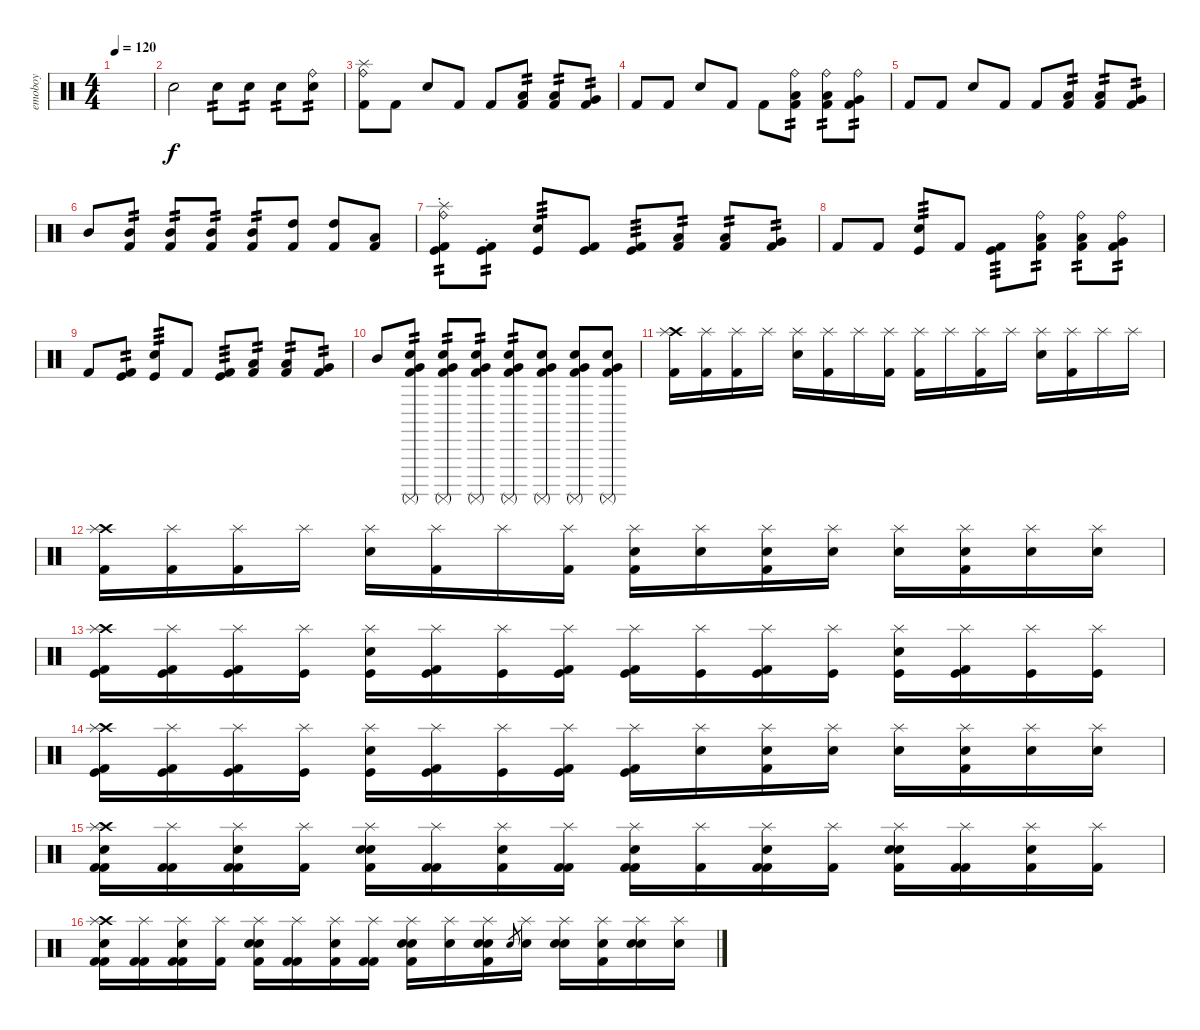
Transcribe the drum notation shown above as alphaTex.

\track ("emoboy" "emoboy") {instrument percussion}
\staff {score}
\articulation defaults
\ts (4 4)
\tempo 120
\clef neutral
\ks c
|
"Snare (hit)".2{dy f} "Electric Snare (hit)".8{tp 2 volume 4} "Electric Snare (hit)".8{tp 2 volume 8} "Electric Snare (hit)".8{tp 2 volume 12} ("Ride (bell)" "Electric Snare (hit)").8{tp 2 volume 16} |
("Ride (bell)" "Splash (hit)" "Kick (hit) 2").8 "Kick (hit) 2".8 "Electric Snare (hit)".8 "Kick (hit) 2".8 "Kick (hit) 2".8 ("Low Tom (hit)" "Kick (hit) 2").8{tp 2} ("Low Tom (hit)" "Kick (hit) 2").8{tp 2} ("Very Low Tom (hit)" "Kick (hit) 2").8{tp 2} |
"Kick (hit) 2".8 "Kick (hit) 2".8 "Electric Snare (hit)".8 "Kick (hit) 2".8 "Kick (hit) 2".8 ("Ride (bell)" "Low Tom (hit)" "Kick (hit) 2").8{tp 2} ("Ride (bell)" "Low Tom (hit)" "Kick (hit) 2").8{tp 2} ("Ride (bell)" "Very Low Tom (hit)" "Kick (hit) 2").8{tp 2} |
"Kick (hit) 2".8 "Kick (hit) 2".8 "Electric Snare (hit)".8 "Kick (hit) 2".8 "Kick (hit) 2".8 ("Low Tom (hit)" "Kick (hit) 2").8{tp 2} ("Low Tom (hit)" "Kick (hit) 2").8{tp 2} ("Very Low Tom (hit)" "Kick (hit) 2").8{tp 2} |
"Mid Tom (hit)".8 ("Mid Tom (hit)" "Kick (hit) 2").8{tp 2 volume 4} ("Mid Tom (hit)" "Kick (hit) 2").8{tp 2 volume 8} ("Mid Tom (hit)" "Kick (hit) 2").8{tp 2 volume 12} ("Mid Tom (hit)" "Kick (hit) 2").8{tp 2 volume 16} ("High Tom (hit)" "Kick (hit) 2").8 ("High Tom (hit)" "Kick (hit) 2").8 ("Low Tom (hit)" "Kick (hit) 2").8 |
("Ride (bell)" "Splash (hit)" "Kick (hit) 2"{st} "Kick (hit)").8{tp 2} ("Kick (hit) 2"{st} "Kick (hit)").8{tp 2} ("Electric Snare (hit)" "Kick (hit)").8{tp 3} ("Kick (hit) 2" "Kick (hit)").8 ("Kick (hit) 2" "Kick (hit)").8{tp 3} ("Low Tom (hit)" "Kick (hit) 2").8{tp 2} ("Low Tom (hit)" "Kick (hit) 2").8{tp 2} ("Very Low Tom (hit)" "Kick (hit) 2").8{tp 2} |
"Kick (hit) 2".8 "Kick (hit) 2".8 ("Electric Snare (hit)" "Kick (hit)").8{tp 3} "Kick (hit) 2".8 ("Kick (hit) 2" "Kick (hit)").8{tp 3} ("Ride (bell)" "Low Tom (hit)" "Kick (hit) 2").8{tp 2} ("Ride (bell)" "Low Tom (hit)" "Kick (hit) 2").8{tp 2} ("Ride (bell)" "Very Low Tom (hit)" "Kick (hit) 2").8{tp 2} |
"Kick (hit) 2".8 ("Kick (hit) 2" "Kick (hit)").8{tp 2} ("Electric Snare (hit)" "Kick (hit)").8{tp 3} "Kick (hit) 2".8 ("Kick (hit) 2" "Kick (hit)").8{tp 3} ("Low Tom (hit)" "Kick (hit) 2").8{tp 2} ("Low Tom (hit)" "Kick (hit) 2").8{tp 2} ("Very Low Tom (hit)" "Kick (hit) 2").8{tp 2} |
"Mid Tom (hit)".8 ("Electric Snare (hit)" "Surdo (mute)" "Very Low Tom (hit)" "Kick (hit) 2").8{tp 2 volume 4} ("Electric Snare (hit)" "Surdo (mute)" "Very Low Tom (hit)" "Kick (hit) 2").8{tp 2 volume 8} ("Electric Snare (hit)" "Surdo (mute)" "Very Low Tom (hit)" "Kick (hit) 2").8{tp 2 volume 12} ("Electric Snare (hit)" "Surdo (mute)" "Very Low Tom (hit)" "Kick (hit) 2").8{tp 2 volume 16} ("Electric Snare (hit)" "Surdo (mute)" "Very Low Tom (hit)" "Kick (hit) 2").8 ("Electric Snare (hit)" "Surdo (mute)" "Very Low Tom (hit)" "Kick (hit) 2").8 ("Electric Snare (hit)" "Surdo (mute)" "Very Low Tom (hit)" "Kick (hit) 2").8 |
("Crash high (hit)" "Splash (hit)" "Kick (hit) 2").16 ("Splash (hit)" "Kick (hit) 2").16 ("Splash (hit)" "Kick (hit) 2").16 "Splash (hit)".16 ("Splash (hit)" "Electric Snare (hit)").16 ("Splash (hit)" "Kick (hit) 2").16 "Splash (hit)".16 ("Splash (hit)" "Kick (hit) 2").16 ("Splash (hit)" "Kick (hit) 2").16 "Splash (hit)".16 ("Splash (hit)" "Kick (hit) 2").16 "Splash (hit)".16 ("Splash (hit)" "Electric Snare (hit)").16 ("Splash (hit)" "Kick (hit) 2").16 "Splash (hit)".16 "Splash (hit)".16 |
("Crash high (hit)" "Splash (hit)" "Kick (hit) 2").16 ("Splash (hit)" "Kick (hit) 2").16 ("Splash (hit)" "Kick (hit) 2").16 "Splash (hit)".16 ("Splash (hit)" "Electric Snare (hit)").16 ("Splash (hit)" "Kick (hit) 2").16 "Splash (hit)".16 ("Splash (hit)" "Kick (hit) 2").16 ("Splash (hit)" "Kick (hit) 2" "Electric Snare (hit)").16 ("Splash (hit)" "Electric Snare (hit)").16 ("Splash (hit)" "Kick (hit) 2" "Snare (hit)").16 ("Splash (hit)" "Electric Snare (hit)").16 ("Splash (hit)" "Electric Snare (hit)").16 ("Splash (hit)" "Kick (hit) 2" "Electric Snare (hit)").16 ("Splash (hit)" "Electric Snare (hit)").16 ("Splash (hit)" "Electric Snare (hit)").16 |
("Crash high (hit)" "Splash (hit)" "Kick (hit) 2" "Kick (hit)").16 ("Splash (hit)" "Kick (hit) 2" "Kick (hit)").16 ("Splash (hit)" "Kick (hit) 2" "Kick (hit)").16 ("Splash (hit)" "Kick (hit)").16 ("Splash (hit)" "Electric Snare (hit)" "Kick (hit)").16 ("Splash (hit)" "Kick (hit) 2" "Kick (hit)").16 ("Splash (hit)" "Kick (hit)").16 ("Splash (hit)" "Kick (hit) 2" "Kick (hit)").16 ("Splash (hit)" "Kick (hit) 2" "Kick (hit)").16 ("Splash (hit)" "Kick (hit)").16 ("Splash (hit)" "Kick (hit) 2" "Kick (hit)").16 ("Splash (hit)" "Kick (hit)").16 ("Splash (hit)" "Electric Snare (hit)" "Kick (hit)").16 ("Splash (hit)" "Kick (hit) 2" "Kick (hit)").16 ("Splash (hit)" "Kick (hit)").16 ("Splash (hit)" "Kick (hit)").16 |
("Crash high (hit)" "Splash (hit)" "Kick (hit) 2" "Kick (hit)").16 ("Splash (hit)" "Kick (hit) 2" "Kick (hit)").16 ("Splash (hit)" "Kick (hit) 2" "Kick (hit)").16 ("Splash (hit)" "Kick (hit)").16 ("Splash (hit)" "Electric Snare (hit)" "Kick (hit)").16 ("Splash (hit)" "Kick (hit) 2" "Kick (hit)").16 ("Splash (hit)" "Kick (hit)").16 ("Splash (hit)" "Kick (hit) 2" "Kick (hit)").16 ("Splash (hit)" "Kick (hit) 2" "Kick (hit)").16 ("Splash (hit)" "Electric Snare (hit)").16 ("Splash (hit)" "Kick (hit) 2" "Snare (hit)").16 ("Splash (hit)" "Electric Snare (hit)").16 ("Splash (hit)" "Electric Snare (hit)").16 ("Splash (hit)" "Kick (hit) 2" "Electric Snare (hit)").16 ("Splash (hit)" "Electric Snare (hit)").16 ("Splash (hit)" "Electric Snare (hit)").16 |
("Electric Snare (hit)" "Crash high (hit)" "Splash (hit)" "Kick (hit) 2" "Kick (hit) 2").16 ("Splash (hit)" "Kick (hit) 2" "Kick (hit) 2").16 ("Electric Snare (hit)" "Splash (hit)" "Kick (hit) 2" "Kick (hit) 2").16 ("Splash (hit)" "Kick (hit) 2").16 ("Electric Snare (hit)" "Splash (hit)" "Electric Snare (hit)" "Kick (hit) 2").16 ("Splash (hit)" "Kick (hit) 2" "Kick (hit) 2").16 ("Electric Snare (hit)" "Splash (hit)" "Kick (hit) 2").16 ("Splash (hit)" "Kick (hit) 2" "Kick (hit) 2").16 ("Electric Snare (hit)" "Splash (hit)" "Kick (hit) 2" "Kick (hit) 2").16 ("Splash (hit)" "Kick (hit) 2").16 ("Electric Snare (hit)" "Splash (hit)" "Kick (hit) 2" "Kick (hit) 2").16 ("Splash (hit)" "Kick (hit) 2").16 ("Electric Snare (hit)" "Splash (hit)" "Electric Snare (hit)" "Kick (hit) 2").16 ("Splash (hit)" "Kick (hit) 2" "Kick (hit) 2").16 ("Electric Snare (hit)" "Splash (hit)" "Kick (hit) 2").16 ("Splash (hit)" "Kick (hit) 2").16 |
("Electric Snare (hit)" "Crash high (hit)" "Splash (hit)" "Kick (hit) 2" "Kick (hit) 2").16 ("Splash (hit)" "Kick (hit) 2" "Kick (hit) 2").16 ("Electric Snare (hit)" "Splash (hit)" "Kick (hit) 2" "Kick (hit) 2").16 ("Splash (hit)" "Kick (hit) 2").16 ("Electric Snare (hit)" "Splash (hit)" "Electric Snare (hit)" "Kick (hit) 2").16 ("Splash (hit)" "Kick (hit) 2" "Kick (hit) 2").16 ("Electric Snare (hit)" "Splash (hit)" "Kick (hit) 2").16 ("Splash (hit)" "Kick (hit) 2" "Kick (hit) 2").16 ("Electric Snare (hit)" "Splash (hit)" "Kick (hit) 2" "Electric Snare (hit)").16 ("Splash (hit)" "Electric Snare (hit)").16 ("Electric Snare (hit)" "Splash (hit)" "Kick (hit) 2" "Snare (hit)").16 "Electric Snare (hit)".8{gr} ("Splash (hit)" "Electric Snare (hit)").16 ("Electric Snare (hit)" "Splash (hit)" "Electric Snare (hit)").16 ("Splash (hit)" "Kick (hit) 2" "Electric Snare (hit)").16 ("Electric Snare (hit)" "Splash (hit)" "Electric Snare (hit)").16 ("Splash (hit)" "Electric Snare (hit)").16
